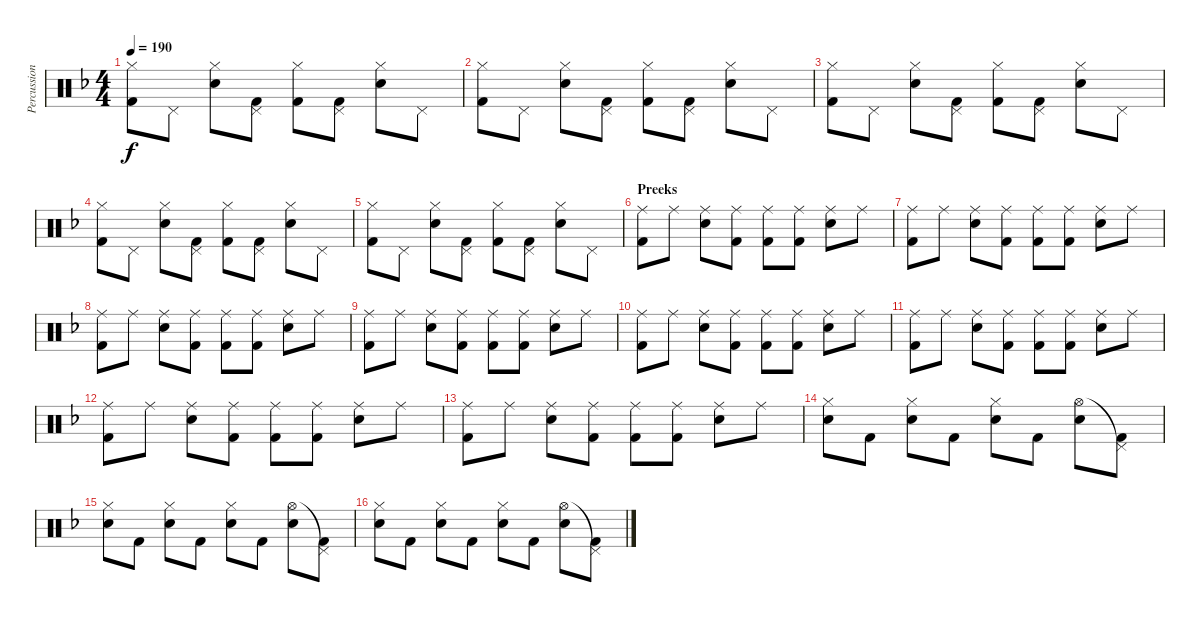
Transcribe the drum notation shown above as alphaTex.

\track ("Percussion" "Percussion") {instrument percussion}
\staff {score}
\articulation defaults
\ts (4 4)
\tempo 190
\clef neutral
\ks f
("Hi-Hat (closed)" "Kick (hit) 2").8{dy f} "Pedal Hi-Hat (hit)".8 ("Hi-Hat (closed)" "Snare (hit) 2").8 ("Pedal Hi-Hat (hit)" "Kick (hit) 2").8 ("Hi-Hat (closed)" "Kick (hit) 2").8 ("Pedal Hi-Hat (hit)" "Kick (hit) 2").8 ("Hi-Hat (closed)" "Snare (hit) 2").8 "Pedal Hi-Hat (hit)".8 |
("Hi-Hat (closed)" "Kick (hit) 2").8 "Pedal Hi-Hat (hit)".8 ("Hi-Hat (closed)" "Snare (hit) 2").8 ("Pedal Hi-Hat (hit)" "Kick (hit) 2").8 ("Hi-Hat (closed)" "Kick (hit) 2").8 ("Pedal Hi-Hat (hit)" "Kick (hit) 2").8 ("Hi-Hat (closed)" "Snare (hit) 2").8 "Pedal Hi-Hat (hit)".8 |
("Hi-Hat (closed)" "Kick (hit) 2").8 "Pedal Hi-Hat (hit)".8 ("Hi-Hat (closed)" "Snare (hit) 2").8 ("Pedal Hi-Hat (hit)" "Kick (hit) 2").8 ("Hi-Hat (closed)" "Kick (hit) 2").8 ("Pedal Hi-Hat (hit)" "Kick (hit) 2").8 ("Hi-Hat (closed)" "Snare (hit) 2").8 "Pedal Hi-Hat (hit)".8 |
("Hi-Hat (closed)" "Kick (hit) 2").8 "Pedal Hi-Hat (hit)".8 ("Hi-Hat (closed)" "Snare (hit) 2").8 ("Pedal Hi-Hat (hit)" "Kick (hit) 2").8 ("Hi-Hat (closed)" "Kick (hit) 2").8 ("Pedal Hi-Hat (hit)" "Kick (hit) 2").8 ("Hi-Hat (closed)" "Snare (hit) 2").8 "Pedal Hi-Hat (hit)".8 |
("Hi-Hat (closed)" "Kick (hit) 2").8 "Pedal Hi-Hat (hit)".8 ("Hi-Hat (closed)" "Snare (hit) 2").8 ("Pedal Hi-Hat (hit)" "Kick (hit) 2").8 ("Hi-Hat (closed)" "Kick (hit) 2").8 ("Pedal Hi-Hat (hit)" "Kick (hit) 2").8 ("Hi-Hat (closed)" "Snare (hit) 2").8 "Pedal Hi-Hat (hit)".8 |
\section ("" "Preeks")
("Ride (middle)" "Kick (hit) 2").8 "Ride (middle)".8 ("Ride (middle)" "Snare (hit) 2").8 ("Ride (middle)" "Kick (hit) 2").8 ("Ride (middle)" "Kick (hit) 2").8 ("Ride (middle)" "Kick (hit) 2").8 ("Ride (middle)" "Snare (hit) 2").8 "Ride (middle)".8 |
("Ride (middle)" "Kick (hit) 2").8 "Ride (middle)".8 ("Ride (middle)" "Snare (hit) 2").8 ("Ride (middle)" "Kick (hit) 2").8 ("Ride (middle)" "Kick (hit) 2").8 ("Ride (middle)" "Kick (hit) 2").8 ("Ride (middle)" "Snare (hit) 2").8 "Ride (middle)".8 |
("Ride (middle)" "Kick (hit) 2").8 "Ride (middle)".8 ("Ride (middle)" "Snare (hit) 2").8 ("Ride (middle)" "Kick (hit) 2").8 ("Ride (middle)" "Kick (hit) 2").8 ("Ride (middle)" "Kick (hit) 2").8 ("Ride (middle)" "Snare (hit) 2").8 "Ride (middle)".8 |
("Ride (middle)" "Kick (hit) 2").8 "Ride (middle)".8 ("Ride (middle)" "Snare (hit) 2").8 ("Ride (middle)" "Kick (hit) 2").8 ("Ride (middle)" "Kick (hit) 2").8 ("Ride (middle)" "Kick (hit) 2").8 ("Ride (middle)" "Snare (hit) 2").8 "Ride (middle)".8 |
("Ride (middle)" "Kick (hit) 2").8 "Ride (middle)".8 ("Ride (middle)" "Snare (hit) 2").8 ("Ride (middle)" "Kick (hit) 2").8 ("Ride (middle)" "Kick (hit) 2").8 ("Ride (middle)" "Kick (hit) 2").8 ("Ride (middle)" "Snare (hit) 2").8 "Ride (middle)".8 |
("Ride (middle)" "Kick (hit) 2").8 "Ride (middle)".8 ("Ride (middle)" "Snare (hit) 2").8 ("Ride (middle)" "Kick (hit) 2").8 ("Ride (middle)" "Kick (hit) 2").8 ("Ride (middle)" "Kick (hit) 2").8 ("Ride (middle)" "Snare (hit) 2").8 "Ride (middle)".8 |
("Ride (middle)" "Kick (hit) 2").8 "Ride (middle)".8 ("Ride (middle)" "Snare (hit) 2").8 ("Ride (middle)" "Kick (hit) 2").8 ("Ride (middle)" "Kick (hit) 2").8 ("Ride (middle)" "Kick (hit) 2").8 ("Ride (middle)" "Snare (hit) 2").8 "Ride (middle)".8 |
("Ride (middle)" "Kick (hit) 2").8 "Ride (middle)".8 ("Ride (middle)" "Snare (hit) 2").8 ("Ride (middle)" "Kick (hit) 2").8 ("Ride (middle)" "Kick (hit) 2").8 ("Ride (middle)" "Kick (hit) 2").8 ("Ride (middle)" "Snare (hit) 2").8 "Ride (middle)".8 |
("Hi-Hat (closed)" "Snare (hit) 2").8 "Kick (hit) 2".8 ("Hi-Hat (closed)" "Snare (hit) 2").8 "Kick (hit) 2".8 ("Hi-Hat (closed)" "Snare (hit) 2").8 "Kick (hit) 2".8 ("Hi-Hat (open)" "Snare (hit) 2").8 ("Pedal Hi-Hat (hit)"{t} "Kick (hit) 2").8 |
("Hi-Hat (closed)" "Snare (hit) 2").8 "Kick (hit) 2".8 ("Hi-Hat (closed)" "Snare (hit) 2").8 "Kick (hit) 2".8 ("Hi-Hat (closed)" "Snare (hit) 2").8 "Kick (hit) 2".8 ("Hi-Hat (open)" "Snare (hit) 2").8 ("Pedal Hi-Hat (hit)"{t} "Kick (hit) 2").8 |
("Hi-Hat (closed)" "Snare (hit) 2").8 "Kick (hit) 2".8 ("Hi-Hat (closed)" "Snare (hit) 2").8 "Kick (hit) 2".8 ("Hi-Hat (closed)" "Snare (hit) 2").8 "Kick (hit) 2".8 ("Hi-Hat (open)" "Snare (hit) 2").8 ("Pedal Hi-Hat (hit)"{t} "Kick (hit) 2").8
